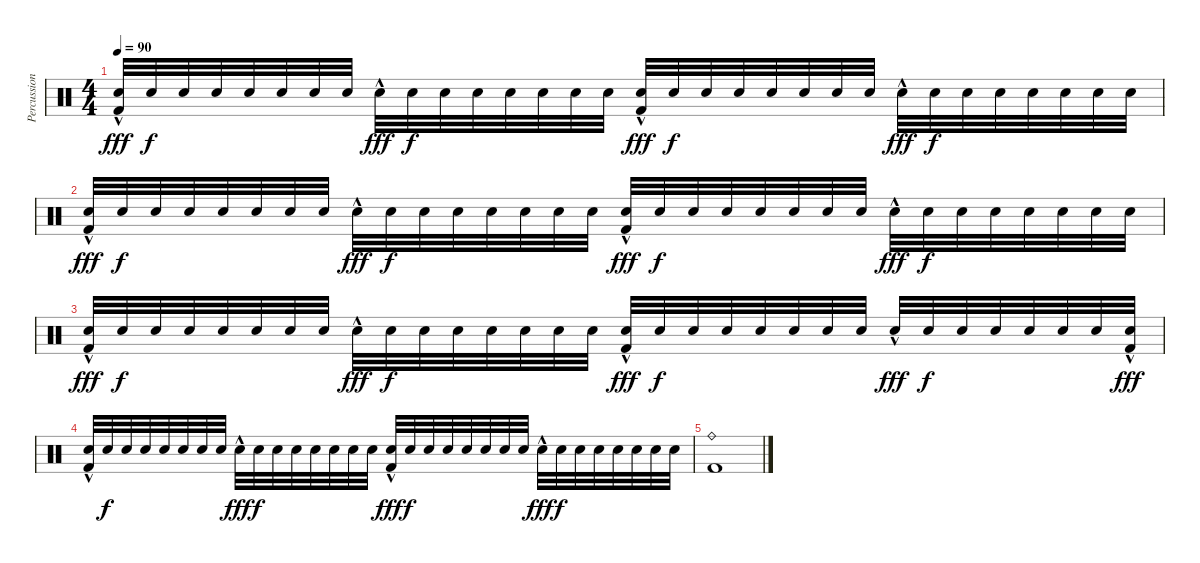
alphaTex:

\track ("Percussion" "Percussion") {instrument percussion}
\staff {score}
\articulation defaults
\ts (4 4)
\tempo 90
\clef neutral
\ks c
("Snare (hit) 2" "Kick (hit) 2"{hac}).32{dy fff} "Snare (hit) 2".32{dy f} "Snare (hit) 2".32 "Snare (hit) 2".32 "Snare (hit) 2".32 "Snare (hit) 2".32 "Snare (hit) 2".32 "Snare (hit) 2".32 "Snare (hit) 2"{hac}.32{dy fff} "Snare (hit) 2".32{dy f} "Snare (hit) 2".32 "Snare (hit) 2".32 "Snare (hit) 2".32 "Snare (hit) 2".32 "Snare (hit) 2".32 "Snare (hit) 2".32 ("Snare (hit) 2" "Kick (hit) 2"{hac}).32{dy fff} "Snare (hit) 2".32{dy f} "Snare (hit) 2".32 "Snare (hit) 2".32 "Snare (hit) 2".32 "Snare (hit) 2".32 "Snare (hit) 2".32 "Snare (hit) 2".32 "Snare (hit) 2"{hac}.32{dy fff} "Snare (hit) 2".32{dy f} "Snare (hit) 2".32 "Snare (hit) 2".32 "Snare (hit) 2".32 "Snare (hit) 2".32 "Snare (hit) 2".32 "Snare (hit) 2".32 |
("Snare (hit) 2" "Kick (hit) 2"{hac}).32{dy fff} "Snare (hit) 2".32{dy f} "Snare (hit) 2".32 "Snare (hit) 2".32 "Snare (hit) 2".32 "Snare (hit) 2".32 "Snare (hit) 2".32 "Snare (hit) 2".32 "Snare (hit) 2"{hac}.32{dy fff} "Snare (hit) 2".32{dy f} "Snare (hit) 2".32 "Snare (hit) 2".32 "Snare (hit) 2".32 "Snare (hit) 2".32 "Snare (hit) 2".32 "Snare (hit) 2".32 ("Snare (hit) 2" "Kick (hit) 2"{hac}).32{dy fff} "Snare (hit) 2".32{dy f} "Snare (hit) 2".32 "Snare (hit) 2".32 "Snare (hit) 2".32 "Snare (hit) 2".32 "Snare (hit) 2".32 "Snare (hit) 2".32 "Snare (hit) 2"{hac}.32{dy fff} "Snare (hit) 2".32{dy f} "Snare (hit) 2".32 "Snare (hit) 2".32 "Snare (hit) 2".32 "Snare (hit) 2".32 "Snare (hit) 2".32 "Snare (hit) 2".32 |
("Snare (hit) 2" "Kick (hit) 2"{hac}).32{dy fff} "Snare (hit) 2".32{dy f} "Snare (hit) 2".32 "Snare (hit) 2".32 "Snare (hit) 2".32 "Snare (hit) 2".32 "Snare (hit) 2".32 "Snare (hit) 2".32 "Snare (hit) 2"{hac}.32{dy fff} "Snare (hit) 2".32{dy f} "Snare (hit) 2".32 "Snare (hit) 2".32 "Snare (hit) 2".32 "Snare (hit) 2".32 "Snare (hit) 2".32 "Snare (hit) 2".32 ("Snare (hit) 2" "Kick (hit) 2"{hac}).32{dy fff} "Snare (hit) 2".32{dy f} "Snare (hit) 2".32 "Snare (hit) 2".32 "Snare (hit) 2".32 "Snare (hit) 2".32 "Snare (hit) 2".32 "Snare (hit) 2".32 "Snare (hit) 2"{hac}.32{dy fff} "Snare (hit) 2".32{dy f} "Snare (hit) 2".32 "Snare (hit) 2".32 "Snare (hit) 2".32 "Snare (hit) 2".32 "Snare (hit) 2".32 ("Snare (hit) 2" "Kick (hit) 2"{hac}).32{dy fff} |
("Snare (hit) 2" "Kick (hit) 2"{hac}).32 "Snare (hit) 2".32{dy f} "Snare (hit) 2".32 "Snare (hit) 2".32 "Snare (hit) 2".32 "Snare (hit) 2".32 "Snare (hit) 2".32 "Snare (hit) 2".32 "Snare (hit) 2"{hac}.32{dy fff} "Snare (hit) 2".32{dy f} "Snare (hit) 2".32 "Snare (hit) 2".32 "Snare (hit) 2".32 "Snare (hit) 2".32 "Snare (hit) 2".32 "Snare (hit) 2".32 ("Snare (hit) 2" "Kick (hit) 2"{hac}).32{dy fff} "Snare (hit) 2".32{dy f} "Snare (hit) 2".32 "Snare (hit) 2".32 "Snare (hit) 2".32 "Snare (hit) 2".32 "Snare (hit) 2".32 "Snare (hit) 2".32 "Snare (hit) 2"{hac}.32{dy fff} "Snare (hit) 2".32{dy f} "Snare (hit) 2".32 "Snare (hit) 2".32 "Snare (hit) 2".32 "Snare (hit) 2".32 "Snare (hit) 2".32 "Snare (hit) 2".32 |
("Ride (bell)" "Kick (hit) 2").1
